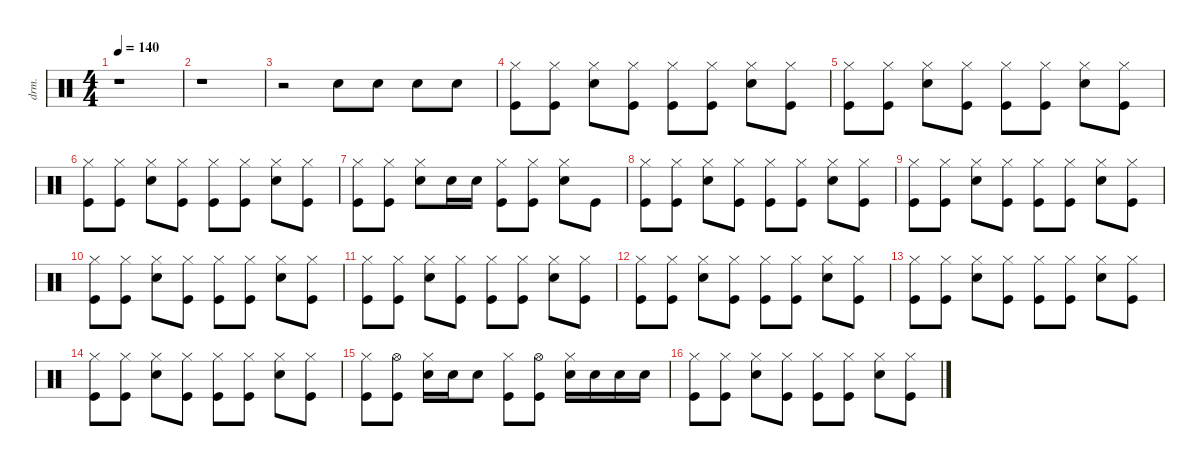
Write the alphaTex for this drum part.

\defaultSystemsLayout 4
\hideDynamics
\bracketExtendMode nobrackets
\otherSystemsTrackNameOrientation horizontal
\track ("Drums" "drm.") {instrument percussion}
\staff {score}
\articulation defaults
\ts (4 4)
\tempo 140
\clef neutral
\ks c
r.1{dy f} |
r.1 |
r.2 "Snare (hit) 2".8 "Snare (hit) 2".8 "Snare (hit) 2".8 "Snare (hit) 2".8 |
("Kick (hit)" "Hi-Hat (closed)").8 ("Kick (hit)" "Hi-Hat (closed)").8 ("Snare (hit) 2" "Hi-Hat (closed)").8 ("Kick (hit)" "Hi-Hat (closed)").8 ("Kick (hit)" "Hi-Hat (closed)").8 ("Kick (hit)" "Hi-Hat (closed)").8 ("Snare (hit) 2" "Hi-Hat (closed)").8 ("Kick (hit)" "Hi-Hat (closed)").8 |
("Kick (hit)" "Hi-Hat (closed)").8 ("Kick (hit)" "Hi-Hat (closed)").8 ("Snare (hit) 2" "Hi-Hat (closed)").8 ("Kick (hit)" "Hi-Hat (closed)").8 ("Kick (hit)" "Hi-Hat (closed)").8 ("Kick (hit)" "Hi-Hat (closed)").8 ("Snare (hit) 2" "Hi-Hat (closed)").8 ("Kick (hit)" "Hi-Hat (closed)").8 |
("Kick (hit)" "Hi-Hat (closed)").8 ("Kick (hit)" "Hi-Hat (closed)").8 ("Snare (hit) 2" "Hi-Hat (closed)").8 ("Kick (hit)" "Hi-Hat (closed)").8 ("Kick (hit)" "Hi-Hat (closed)").8 ("Kick (hit)" "Hi-Hat (closed)").8 ("Snare (hit) 2" "Hi-Hat (closed)").8 ("Kick (hit)" "Hi-Hat (closed)").8 |
("Kick (hit)" "Hi-Hat (closed)").8 ("Kick (hit)" "Hi-Hat (closed)").8 ("Snare (hit) 2" "Hi-Hat (closed)").8 "Snare (hit) 2".16 "Snare (hit) 2".16 ("Kick (hit)" "Hi-Hat (closed)").8 ("Kick (hit)" "Hi-Hat (closed)").8 ("Snare (hit) 2" "Hi-Hat (closed)").8 "Kick (hit)".8 |
("Kick (hit)" "Hi-Hat (closed)").8 ("Kick (hit)" "Hi-Hat (closed)").8 ("Snare (hit) 2" "Hi-Hat (closed)").8 ("Kick (hit)" "Hi-Hat (closed)").8 ("Kick (hit)" "Hi-Hat (closed)").8 ("Kick (hit)" "Hi-Hat (closed)").8 ("Snare (hit) 2" "Hi-Hat (closed)").8 ("Kick (hit)" "Hi-Hat (closed)").8 |
("Kick (hit)" "Hi-Hat (closed)").8 ("Kick (hit)" "Hi-Hat (closed)").8 ("Snare (hit) 2" "Hi-Hat (closed)").8 ("Kick (hit)" "Hi-Hat (closed)").8 ("Kick (hit)" "Hi-Hat (closed)").8 ("Kick (hit)" "Hi-Hat (closed)").8 ("Snare (hit) 2" "Hi-Hat (closed)").8 ("Kick (hit)" "Hi-Hat (closed)").8 |
("Kick (hit)" "Hi-Hat (closed)").8 ("Kick (hit)" "Hi-Hat (closed)").8 ("Snare (hit) 2" "Hi-Hat (closed)").8 ("Kick (hit)" "Hi-Hat (closed)").8 ("Kick (hit)" "Hi-Hat (closed)").8 ("Kick (hit)" "Hi-Hat (closed)").8 ("Snare (hit) 2" "Hi-Hat (closed)").8 ("Kick (hit)" "Hi-Hat (closed)").8 |
("Kick (hit)" "Hi-Hat (closed)").8 ("Kick (hit)" "Hi-Hat (closed)").8 ("Snare (hit) 2" "Hi-Hat (closed)").8 ("Kick (hit)" "Hi-Hat (closed)").8 ("Kick (hit)" "Hi-Hat (closed)").8 ("Kick (hit)" "Hi-Hat (closed)").8 ("Snare (hit) 2" "Hi-Hat (closed)").8 ("Kick (hit)" "Hi-Hat (closed)").8 |
("Kick (hit)" "Hi-Hat (closed)").8 ("Kick (hit)" "Hi-Hat (closed)").8 ("Snare (hit) 2" "Hi-Hat (closed)").8 ("Kick (hit)" "Hi-Hat (closed)").8 ("Kick (hit)" "Hi-Hat (closed)").8 ("Kick (hit)" "Hi-Hat (closed)").8 ("Snare (hit) 2" "Hi-Hat (closed)").8 ("Kick (hit)" "Hi-Hat (closed)").8 |
("Kick (hit)" "Hi-Hat (closed)").8 ("Kick (hit)" "Hi-Hat (closed)").8 ("Snare (hit) 2" "Hi-Hat (closed)").8 ("Kick (hit)" "Hi-Hat (closed)").8 ("Kick (hit)" "Hi-Hat (closed)").8 ("Kick (hit)" "Hi-Hat (closed)").8 ("Snare (hit) 2" "Hi-Hat (closed)").8 ("Kick (hit)" "Hi-Hat (closed)").8 |
("Kick (hit)" "Hi-Hat (closed)").8 ("Kick (hit)" "Hi-Hat (closed)").8 ("Snare (hit) 2" "Hi-Hat (closed)").8 ("Kick (hit)" "Hi-Hat (closed)").8 ("Kick (hit)" "Hi-Hat (closed)").8 ("Kick (hit)" "Hi-Hat (closed)").8 ("Snare (hit) 2" "Hi-Hat (closed)").8 ("Kick (hit)" "Hi-Hat (closed)").8 |
("Hi-Hat (closed)" "Kick (hit)").8 ("Hi-Hat (open)" "Kick (hit)").8 ("Hi-Hat (closed)" "Snare (hit) 2").16 "Snare (hit) 2".16 "Snare (hit) 2".8 ("Hi-Hat (closed)" "Kick (hit)").8 ("Hi-Hat (open)" "Kick (hit)").8 ("Hi-Hat (closed)" "Snare (hit) 2").16 "Snare (hit) 2".16 "Snare (hit) 2".16 "Snare (hit) 2".16 |
("Kick (hit)" "Hi-Hat (closed)").8 ("Kick (hit)" "Hi-Hat (closed)").8 ("Snare (hit) 2" "Hi-Hat (closed)").8 ("Kick (hit)" "Hi-Hat (closed)").8 ("Kick (hit)" "Hi-Hat (closed)").8 ("Kick (hit)" "Hi-Hat (closed)").8 ("Snare (hit) 2" "Hi-Hat (closed)").8 ("Kick (hit)" "Hi-Hat (closed)").8
